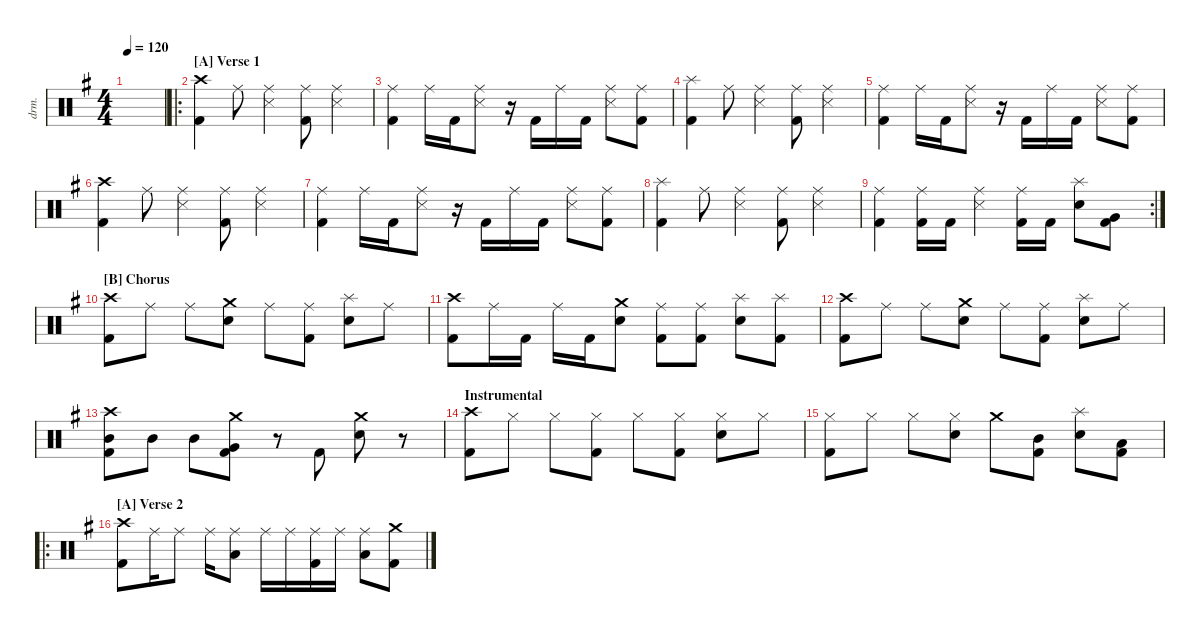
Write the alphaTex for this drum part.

\defaultSystemsLayout 4
\hideDynamics
\bracketExtendMode nobrackets
\track ("Drums" "drm.") {instrument percussion}
\staff {score}
\articulation defaults
\ts (4 4)
\tempo 120
\clef neutral
\ks g
|
\ro
\section ("A" "Verse 1")
("Kick (hit) 2"{acc forcenatural} "Crash high (hit)"{acc forcenatural}).4{beam Down} "Ride (middle)"{acc forcenatural}.8{beam Down} ("Ride (middle)"{acc forcenatural} "Snare (side stick) 3"{acc forcenatural}).4{beam Down} ("Kick (hit) 2"{acc forcenatural} "Ride (middle)"{acc forcenatural}).8{beam Down} ("Snare (side stick) 3"{acc forcenatural} "Ride (middle)"{acc forcenatural}).4{beam Down} |
("Kick (hit) 2"{acc forcenatural} "Ride (middle)"{acc forcenatural}).4{beam Down} "Ride (middle)"{acc forcenatural}.16{beam Down} "Kick (hit) 2"{acc forcenatural}.16{beam Down} ("Snare (side stick) 3"{acc forcenatural} "Ride (middle)"{acc forcenatural}).8{beam Down} r.16{beam Down} "Kick (hit) 2"{acc forcenatural}.16{beam Down} "Ride (middle)"{acc forcenatural}.16{beam Down} "Kick (hit) 2"{acc forcenatural}.16{beam Down} ("Ride (middle)"{acc forcenatural} "Snare (side stick) 3"{acc forcenatural}).8{beam Down} ("Kick (hit) 2"{acc forcenatural} "Ride (middle)"{acc forcenatural}).8{beam Down} |
("Kick (hit) 2"{acc forcenatural} "Splash (hit)"{acc forcenatural}).4{beam Down} "Ride (middle)"{acc forcenatural}.8{beam Down} ("Ride (middle)"{acc forcenatural} "Snare (side stick) 3"{acc forcenatural}).4{beam Down} ("Kick (hit) 2"{acc forcenatural} "Ride (middle)"{acc forcenatural}).8{beam Down} ("Snare (side stick) 3"{acc forcenatural} "Ride (middle)"{acc forcenatural}).4{beam Down} |
("Kick (hit) 2"{acc forcenatural} "Ride (middle)"{acc forcenatural}).4{beam Down} "Ride (middle)"{acc forcenatural}.16{beam Down} "Kick (hit) 2"{acc forcenatural}.16{beam Down} ("Snare (side stick) 3"{acc forcenatural} "Ride (middle)"{acc forcenatural}).8{beam Down} r.16{beam Down} "Kick (hit) 2"{acc forcenatural}.16{beam Down} "Ride (middle)"{acc forcenatural}.16{beam Down} "Kick (hit) 2"{acc forcenatural}.16{beam Down} ("Ride (middle)"{acc forcenatural} "Snare (side stick) 3"{acc forcenatural}).8{beam Down} ("Kick (hit) 2"{acc forcenatural} "Ride (middle)"{acc forcenatural}).8{beam Down} |
("Kick (hit) 2"{acc forcenatural} "Crash high (hit)"{acc forcenatural}).4{beam Down} "Ride (middle)"{acc forcenatural}.8{beam Down} ("Ride (middle)"{acc forcenatural} "Snare (side stick) 3"{acc forcenatural}).4{beam Down} ("Kick (hit) 2"{acc forcenatural} "Ride (middle)"{acc forcenatural}).8{beam Down} ("Snare (side stick) 3"{acc forcenatural} "Ride (middle)"{acc forcenatural}).4{beam Down} |
("Kick (hit) 2"{acc forcenatural} "Ride (middle)"{acc forcenatural}).4{beam Down} "Ride (middle)"{acc forcenatural}.16{beam Down} "Kick (hit) 2"{acc forcenatural}.16{beam Down} ("Snare (side stick) 3"{acc forcenatural} "Ride (middle)"{acc forcenatural}).8{beam Down} r.16{beam Down} "Kick (hit) 2"{acc forcenatural}.16{beam Down} "Ride (middle)"{acc forcenatural}.16{beam Down} "Kick (hit) 2"{acc forcenatural}.16{beam Down} ("Ride (middle)"{acc forcenatural} "Snare (side stick) 3"{acc forcenatural}).8{beam Down} ("Kick (hit) 2"{acc forcenatural} "Ride (middle)"{acc forcenatural}).8{beam Down} |
("Kick (hit) 2"{acc forcenatural} "Splash (hit)"{acc forcenatural}).4{beam Down} "Ride (middle)"{acc forcenatural}.8{beam Down} ("Ride (middle)"{acc forcenatural} "Snare (side stick) 3"{acc forcenatural}).4{beam Down} ("Kick (hit) 2"{acc forcenatural} "Ride (middle)"{acc forcenatural}).8{beam Down} ("Snare (side stick) 3"{acc forcenatural} "Ride (middle)"{acc forcenatural}).4{beam Down} |
\rc 2
("Kick (hit) 2"{acc forcenatural} "Ride (middle)"{acc forcenatural}).4{beam Down} ("Ride (middle)"{acc forcenatural} "Kick (hit) 2"{acc forcenatural}).16{beam Down} "Kick (hit) 2"{acc forcenatural}.16{beam Down} ("Snare (side stick) 3"{acc forcenatural} "Ride (middle)"{acc forcenatural}).4{beam Down} ("Ride (middle)"{acc forcenatural} "Kick (hit) 2"{acc forcenatural}).16{beam Down} "Kick (hit) 2"{acc forcenatural}.16{beam Down} ("Snare (hit) 2"{acc forcenatural} "Splash (hit)"{acc forcenatural}).8{beam Down} ("Kick (hit) 2"{acc forcenatural} "Very Low Tom (hit)"{acc forcenatural}).8{beam Down} |
\section ("B" "Chorus")
("Crash high (hit)"{acc forcenatural} "Kick (hit) 2"{acc forcenatural}).8{beam Down} "Ride (middle)"{acc forcenatural}.8{beam Down} "Ride (middle)"{acc forcenatural}.8{beam Down} ("Crash medium (hit)"{acc forcenatural} "Snare (hit) 2"{acc forcenatural}).8{beam Down} "Ride (middle)"{acc forcenatural}.8{beam Down} ("Ride (middle)"{acc forcenatural} "Kick (hit) 2"{acc forcenatural}).8{beam Down} ("Splash (hit)"{acc forcenatural} "Snare (hit) 2"{acc forcenatural}).8{beam Down} "Ride (middle)"{acc forcenatural}.8{beam Down} |
("Crash high (hit)"{acc forcenatural} "Kick (hit) 2"{acc forcenatural}).8{beam Down} "Ride (middle)"{acc forcenatural}.16{beam Down} "Kick (hit) 2"{acc forcenatural}.16{beam Down} "Ride (middle)"{acc forcenatural}.16{beam Down} "Kick (hit) 2"{acc forcenatural}.16{beam Down} ("Crash medium (hit)"{acc forcenatural} "Snare (hit) 2"{acc forcenatural}).8{beam Down} ("Ride (middle)"{acc forcenatural} "Kick (hit) 2"{acc forcenatural}).8{beam Down} ("Ride (middle)"{acc forcenatural} "Kick (hit) 2"{acc forcenatural}).8{beam Down} ("Splash (hit)"{acc forcenatural} "Snare (hit) 2"{acc forcenatural}).8{beam Down} ("Splash (hit)"{acc forcenatural} "Kick (hit) 2"{acc forcenatural}).8{beam Down} |
("Crash high (hit)"{acc forcenatural} "Kick (hit) 2"{acc forcenatural}).8{beam Down} "Ride (middle)"{acc forcenatural}.8{beam Down} "Ride (middle)"{acc forcenatural}.8{beam Down} ("Crash medium (hit)"{acc forcenatural} "Snare (hit) 2"{acc forcenatural}).8{beam Down} "Ride (middle)"{acc forcenatural}.8{beam Down} ("Ride (middle)"{acc forcenatural} "Kick (hit) 2"{acc forcenatural}).8{beam Down} ("Splash (hit)"{acc forcenatural} "Snare (hit) 2"{acc forcenatural}).8{beam Down} "Ride (middle)"{acc forcenatural}.8{beam Down} |
("Crash high (hit)"{acc forcenatural} "Kick (hit) 2"{acc forcenatural} "Mid Tom (hit)"{acc forcenatural}).8{beam Down} "Mid Tom (hit)"{acc forcenatural}.8{beam Down} "Mid Tom (hit)"{acc forcenatural}.8{beam Down} ("Crash medium (hit)"{acc forcenatural} "Very Low Tom (hit)"{acc forcenatural} "Kick (hit) 2"{acc forcenatural}).8{beam Down} r.8{beam Down} "Kick (hit) 2"{acc forcenatural}.8{beam Up} ("Crash medium (hit)"{acc forcenatural} "Snare (hit) 2"{acc forcenatural}).8{beam Down} r.8{beam Down} |
\section ("" "Instrumental")
("Crash high (hit)"{acc forcenatural} "Kick (hit) 2"{acc forcenatural}).8{beam Down} "Hi-Hat (closed)"{acc forcenatural}.8{beam Down} "Hi-Hat (closed)"{acc forcenatural}.8{beam Down} ("Hi-Hat (closed)"{acc forcenatural} "Kick (hit) 2"{acc forcenatural}).8{beam Down} "Hi-Hat (closed)"{acc forcenatural}.8{beam Down} ("Hi-Hat (closed)"{acc forcenatural} "Kick (hit) 2"{acc forcenatural}).8{beam Down} ("Hi-Hat (closed)"{acc forcenatural} "Snare (hit) 2"{acc forcenatural}).8{beam Down} "Hi-Hat (closed)"{acc forcenatural}.8{beam Down} |
("Hi-Hat (closed)"{acc forcenatural} "Kick (hit) 2"{acc forcenatural}).8{beam Down} "Hi-Hat (closed)"{acc forcenatural}.8{beam Down} "Hi-Hat (closed)"{acc forcenatural}.8{beam Down} ("Hi-Hat (closed)"{acc forcenatural} "Snare (hit) 2"{acc forcenatural}).8{beam Down} "Crash medium (hit)"{acc forcenatural}.8{beam Down} ("Mid Tom (hit)"{acc forcenatural} "Kick (hit) 2"{acc forcenatural}).8{beam Down} ("Snare (hit) 2"{acc forcenatural} "Splash (hit)"{acc forcenatural}).8{beam Down} ("Low Tom (hit)"{acc forcenatural} "Kick (hit) 2"{acc forcenatural}).8{beam Down} |
\ro
\section ("A" "Verse 2")
("Kick (hit) 2"{acc forcenatural} "Crash high (hit)"{acc forcenatural}).8{beam Down} "Ride (middle)"{acc forcenatural}.16{beam Down} "Ride (middle)"{acc forcenatural}.8{beam Down} "Ride (middle)"{acc forcenatural}.16{beam Down} ("Low Floor Tom (hit)"{acc forcenatural} "Ride (middle)"{acc forcenatural}).8{beam Down} "Ride (middle)"{acc forcenatural}.16{beam Down} "Ride (middle)"{acc forcenatural}.16{beam Down} ("Kick (hit) 2"{acc forcenatural} "Ride (middle)"{acc forcenatural}).16{beam Down} "Ride (middle)"{acc forcenatural}.16{beam Down} ("Low Floor Tom (hit)"{acc forcenatural} "Ride (middle)"{acc forcenatural}).8{beam Down} ("Kick (hit) 2"{acc forcenatural} "Crash medium (hit)"{acc forcenatural}).8{beam Down}
